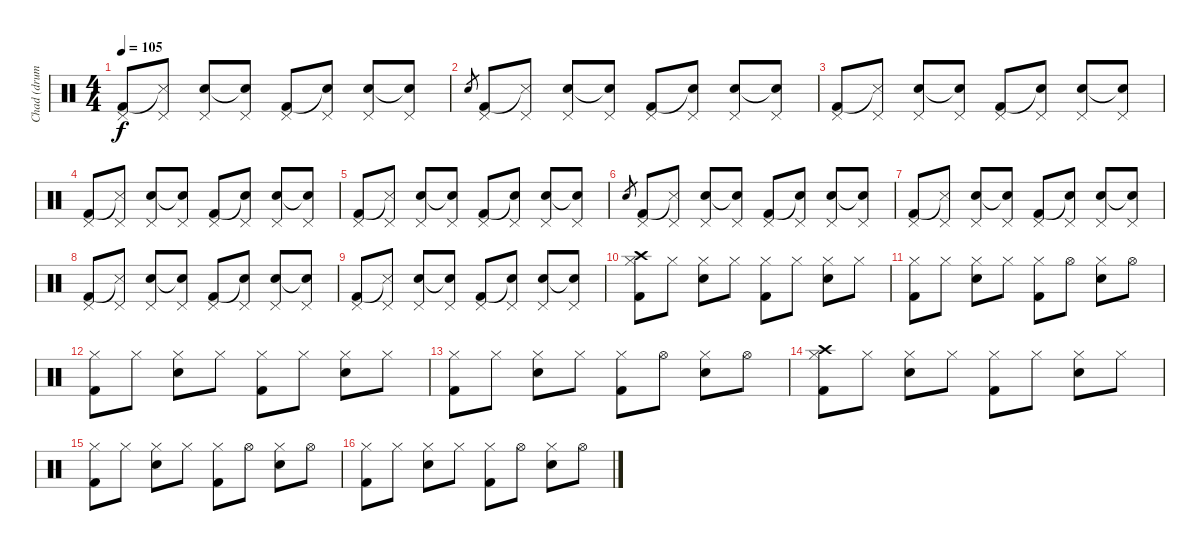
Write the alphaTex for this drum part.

\track ("Chad (drums)" "Chad (drum") {instrument percussion}
\staff {score}
\articulation defaults
\ts (4 4)
\tempo 105
\clef neutral
\ks c
("Pedal Hi-Hat (hit)" "Kick (hit) 2").8{dy f} ("Pedal Hi-Hat (hit)" "Snare (side stick) 3"{t}).8 ("Pedal Hi-Hat (hit)" "Electric Snare (hit)").8 ("Pedal Hi-Hat (hit)" "Snare (hit)"{t}).8 ("Pedal Hi-Hat (hit)" "Kick (hit) 2").8 ("Pedal Hi-Hat (hit)" "Snare (hit)"{t}).8 ("Pedal Hi-Hat (hit)" "Electric Snare (hit)").8 ("Pedal Hi-Hat (hit)" "Snare (hit)"{t}).8 |
"Electric Snare (hit)".8{gr} ("Pedal Hi-Hat (hit)" "Kick (hit) 2").8 ("Pedal Hi-Hat (hit)" "Snare (side stick) 3"{t}).8 ("Pedal Hi-Hat (hit)" "Electric Snare (hit)").8 ("Pedal Hi-Hat (hit)" "Snare (hit)"{t}).8 ("Pedal Hi-Hat (hit)" "Kick (hit) 2").8 ("Pedal Hi-Hat (hit)" "Snare (hit)"{t}).8 ("Pedal Hi-Hat (hit)" "Electric Snare (hit)").8 ("Pedal Hi-Hat (hit)" "Snare (hit)"{t}).8 |
("Pedal Hi-Hat (hit)" "Kick (hit) 2").8 ("Pedal Hi-Hat (hit)" "Snare (side stick) 3"{t}).8 ("Pedal Hi-Hat (hit)" "Electric Snare (hit)").8 ("Pedal Hi-Hat (hit)" "Snare (hit)"{t}).8 ("Pedal Hi-Hat (hit)" "Kick (hit) 2").8 ("Pedal Hi-Hat (hit)" "Snare (hit)"{t}).8 ("Pedal Hi-Hat (hit)" "Electric Snare (hit)").8 ("Pedal Hi-Hat (hit)" "Snare (hit)"{t}).8 |
("Pedal Hi-Hat (hit)" "Kick (hit) 2").8 ("Pedal Hi-Hat (hit)" "Snare (side stick) 3"{t}).8 ("Pedal Hi-Hat (hit)" "Electric Snare (hit)").8 ("Pedal Hi-Hat (hit)" "Snare (hit)"{t}).8 ("Pedal Hi-Hat (hit)" "Kick (hit) 2").8 ("Pedal Hi-Hat (hit)" "Snare (hit)"{t}).8 ("Pedal Hi-Hat (hit)" "Electric Snare (hit)").8 ("Pedal Hi-Hat (hit)" "Snare (hit)"{t}).8 |
("Pedal Hi-Hat (hit)" "Kick (hit) 2").8 ("Pedal Hi-Hat (hit)" "Snare (side stick) 3"{t}).8 ("Pedal Hi-Hat (hit)" "Electric Snare (hit)").8 ("Pedal Hi-Hat (hit)" "Snare (hit)"{t}).8 ("Pedal Hi-Hat (hit)" "Kick (hit) 2").8 ("Pedal Hi-Hat (hit)" "Snare (hit)"{t}).8 ("Pedal Hi-Hat (hit)" "Electric Snare (hit)").8 ("Pedal Hi-Hat (hit)" "Snare (hit)"{t}).8 |
"Electric Snare (hit)".8{gr} ("Pedal Hi-Hat (hit)" "Kick (hit) 2").8 ("Pedal Hi-Hat (hit)" "Snare (side stick) 3"{t}).8 ("Pedal Hi-Hat (hit)" "Electric Snare (hit)").8 ("Pedal Hi-Hat (hit)" "Snare (hit)"{t}).8 ("Pedal Hi-Hat (hit)" "Kick (hit) 2").8 ("Pedal Hi-Hat (hit)" "Snare (hit)"{t}).8 ("Pedal Hi-Hat (hit)" "Electric Snare (hit)").8 ("Pedal Hi-Hat (hit)" "Snare (hit)"{t}).8 |
("Pedal Hi-Hat (hit)" "Kick (hit) 2").8 ("Pedal Hi-Hat (hit)" "Snare (side stick) 3"{t}).8 ("Pedal Hi-Hat (hit)" "Electric Snare (hit)").8 ("Pedal Hi-Hat (hit)" "Snare (hit)"{t}).8 ("Pedal Hi-Hat (hit)" "Kick (hit) 2").8 ("Pedal Hi-Hat (hit)" "Snare (hit)"{t}).8 ("Pedal Hi-Hat (hit)" "Electric Snare (hit)").8 ("Pedal Hi-Hat (hit)" "Snare (hit)"{t}).8 |
("Pedal Hi-Hat (hit)" "Kick (hit) 2").8 ("Pedal Hi-Hat (hit)" "Snare (side stick) 3"{t}).8 ("Pedal Hi-Hat (hit)" "Electric Snare (hit)").8 ("Pedal Hi-Hat (hit)" "Snare (hit)"{t}).8 ("Pedal Hi-Hat (hit)" "Kick (hit) 2").8 ("Pedal Hi-Hat (hit)" "Snare (hit)"{t}).8 ("Pedal Hi-Hat (hit)" "Electric Snare (hit)").8 ("Pedal Hi-Hat (hit)" "Snare (hit)"{t}).8 |
("Pedal Hi-Hat (hit)" "Kick (hit) 2").8 ("Pedal Hi-Hat (hit)" "Snare (side stick) 3"{t}).8 ("Pedal Hi-Hat (hit)" "Electric Snare (hit)").8 ("Pedal Hi-Hat (hit)" "Snare (hit)"{t}).8 ("Pedal Hi-Hat (hit)" "Kick (hit) 2").8 ("Pedal Hi-Hat (hit)" "Snare (hit)"{t}).8 ("Pedal Hi-Hat (hit)" "Electric Snare (hit)").8 ("Pedal Hi-Hat (hit)" "Snare (hit)"{t}).8 |
("Hi-Hat (closed)" "Kick (hit) 2" "Crash high (hit)").8 "Hi-Hat (closed)".8 ("Hi-Hat (closed)" "Electric Snare (hit)").8 "Hi-Hat (closed)".8 ("Hi-Hat (closed)" "Kick (hit) 2").8 "Hi-Hat (closed)".8 ("Hi-Hat (closed)" "Electric Snare (hit)").8 "Hi-Hat (closed)".8 |
("Hi-Hat (closed)" "Kick (hit) 2").8 "Hi-Hat (closed)".8 ("Hi-Hat (closed)" "Electric Snare (hit)").8 "Hi-Hat (closed)".8 ("Hi-Hat (closed)" "Kick (hit) 2").8 "Hi-Hat (open)".8 ("Hi-Hat (closed)" "Electric Snare (hit)").8 "Hi-Hat (open)".8 |
("Hi-Hat (closed)" "Kick (hit) 2").8 "Hi-Hat (closed)".8 ("Hi-Hat (closed)" "Electric Snare (hit)").8 "Hi-Hat (closed)".8 ("Hi-Hat (closed)" "Kick (hit) 2").8 "Hi-Hat (closed)".8 ("Hi-Hat (closed)" "Electric Snare (hit)").8 "Hi-Hat (closed)".8 |
("Hi-Hat (closed)" "Kick (hit) 2").8 "Hi-Hat (closed)".8 ("Hi-Hat (closed)" "Electric Snare (hit)").8 "Hi-Hat (closed)".8 ("Hi-Hat (closed)" "Kick (hit) 2").8 "Hi-Hat (open)".8 ("Hi-Hat (closed)" "Electric Snare (hit)").8 "Hi-Hat (open)".8 |
("Hi-Hat (closed)" "Kick (hit) 2" "Crash high (hit)").8 "Hi-Hat (closed)".8 ("Hi-Hat (closed)" "Electric Snare (hit)").8 "Hi-Hat (closed)".8 ("Hi-Hat (closed)" "Kick (hit) 2").8 "Hi-Hat (closed)".8 ("Hi-Hat (closed)" "Electric Snare (hit)").8 "Hi-Hat (closed)".8 |
("Hi-Hat (closed)" "Kick (hit) 2").8 "Hi-Hat (closed)".8 ("Hi-Hat (closed)" "Electric Snare (hit)").8 "Hi-Hat (closed)".8 ("Hi-Hat (closed)" "Kick (hit) 2").8 "Hi-Hat (open)".8 ("Hi-Hat (closed)" "Electric Snare (hit)").8 "Hi-Hat (open)".8 |
("Hi-Hat (closed)" "Kick (hit) 2").8 "Hi-Hat (closed)".8 ("Hi-Hat (closed)" "Electric Snare (hit)").8 "Hi-Hat (closed)".8 ("Hi-Hat (closed)" "Kick (hit) 2").8 "Hi-Hat (open)".8 ("Hi-Hat (closed)" "Electric Snare (hit)").8 "Hi-Hat (open)".8
